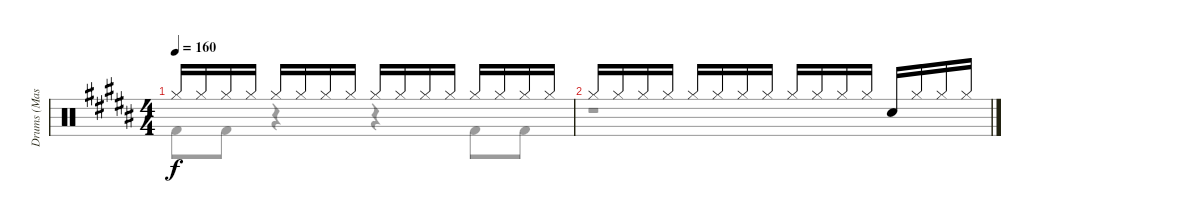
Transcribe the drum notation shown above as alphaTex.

\track ("Drums (Masafumi Minato)" "Drums (Mas") {instrument percussion}
\staff {score}
\articulation defaults
\voice
\ts (4 4)
\tempo 160
\clef neutral
\ks g#minor "Hi-Hat (closed)".16{dy f} "Hi-Hat (closed)".16 "Hi-Hat (closed)".16 "Hi-Hat (closed)".16 "Hi-Hat (closed)".16 "Hi-Hat (closed)".16 "Hi-Hat (closed)".16 "Hi-Hat (closed)".16 "Hi-Hat (closed)".16 "Hi-Hat (closed)".16 "Hi-Hat (closed)".16 "Hi-Hat (closed)".16 "Hi-Hat (closed)".16 "Hi-Hat (closed)".16 "Hi-Hat (closed)".16 "Hi-Hat (closed)".16
|
"Hi-Hat (closed)".16 "Hi-Hat (closed)".16 "Hi-Hat (closed)".16 "Hi-Hat (closed)".16 "Hi-Hat (closed)".16 "Hi-Hat (closed)".16 "Hi-Hat (closed)".16 "Hi-Hat (closed)".16 "Hi-Hat (closed)".16 "Hi-Hat (closed)".16 "Hi-Hat (closed)".16 "Hi-Hat (closed)".16 "Snare (hit) 2".16 "Hi-Hat (closed)".16 "Hi-Hat (closed)".16 "Hi-Hat (closed)".16
\voice
\clef neutral
\ottava regular
\simile none
\ks g#minor "Kick (hit) 2".8{dy f} "Kick (hit) 2".8
r.4 r.4 "Kick (hit) 2".8 "Kick (hit) 2".8 |
r.1
